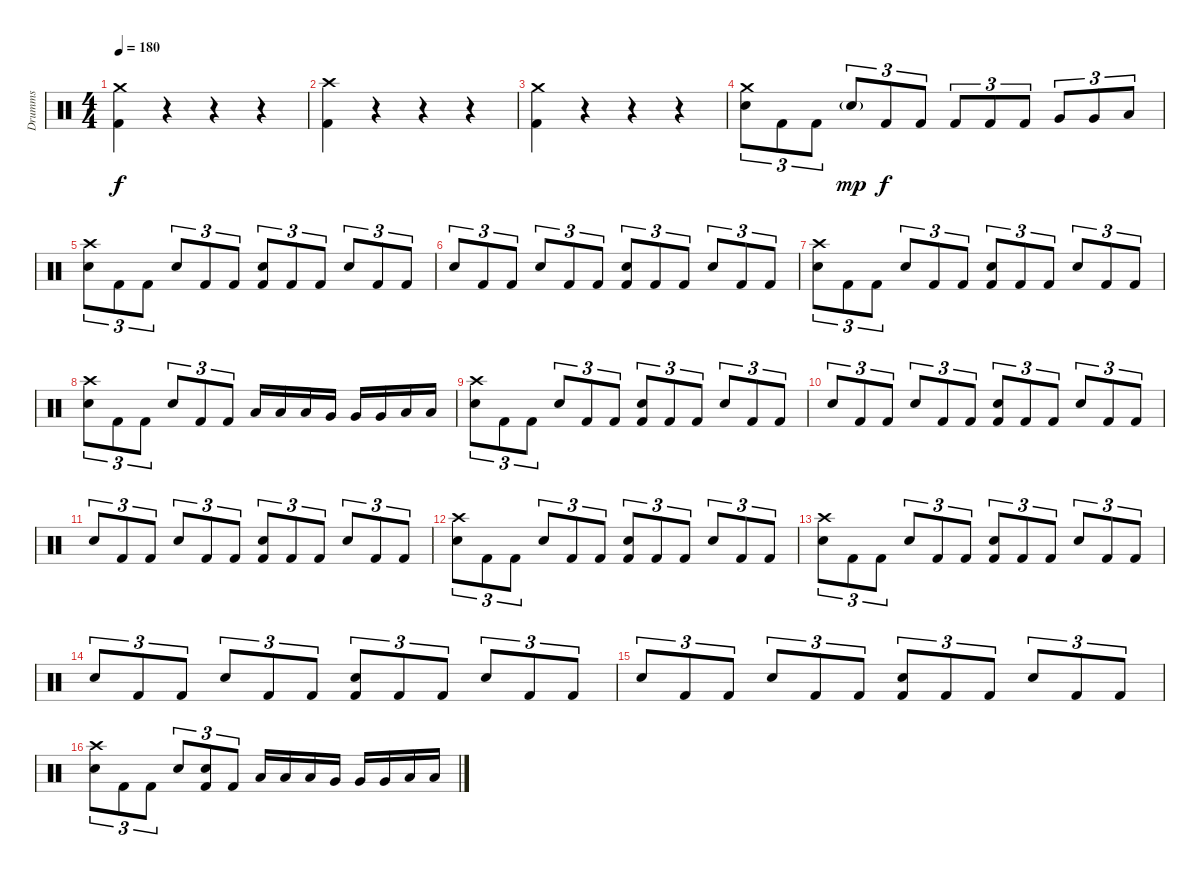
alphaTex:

\track ("Drumms" "Drumms") {instrument percussion}
\staff {score}
\articulation defaults
\ts (4 4)
\tempo 180
\clef neutral
\ks c
("Kick (hit) 2" "Crash medium (hit)").4{dy f} r.4{volume 0} r.4{volume 13} r.4 |
("Kick (hit) 2" "Crash high (hit)").4 r.4{volume 0} r.4{volume 13} r.4 |
("Kick (hit) 2" "Crash medium (hit)").4 r.4 r.4 r.4 |
("Snare (hit) 2" "Crash medium (hit)").8{tu (3 2)} "Kick (hit) 2".8{tu (3 2)} "Kick (hit) 2".8{tu (3 2)} "Snare (hit) 2"{g}.8{tu (3 2) dy mp} "Kick (hit) 2".8{tu (3 2) dy f} "Kick (hit) 2".8{tu (3 2)} "Kick (hit) 2".8{tu (3 2)} "Kick (hit) 2".8{tu (3 2)} "Kick (hit) 2".8{tu (3 2)} "Very Low Tom (hit)".8{tu (3 2)} "Very Low Tom (hit)".8{tu (3 2)} "Low Floor Tom (hit)".8{tu (3 2)} |
("Snare (hit) 2" "Crash high (hit)").8{tu (3 2)} "Kick (hit) 2".8{tu (3 2)} "Kick (hit) 2".8{tu (3 2)} "Snare (hit) 2".8{tu (3 2)} "Kick (hit) 2".8{tu (3 2)} "Kick (hit) 2".8{tu (3 2)} ("Kick (hit) 2" "Snare (hit) 2").8{tu (3 2)} "Kick (hit) 2".8{tu (3 2)} "Kick (hit) 2".8{tu (3 2)} "Snare (hit) 2".8{tu (3 2)} "Kick (hit) 2".8{tu (3 2)} "Kick (hit) 2".8{tu (3 2)} |
"Snare (hit) 2".8{tu (3 2)} "Kick (hit) 2".8{tu (3 2)} "Kick (hit) 2".8{tu (3 2)} "Snare (hit) 2".8{tu (3 2)} "Kick (hit) 2".8{tu (3 2)} "Kick (hit) 2".8{tu (3 2)} ("Kick (hit) 2" "Snare (hit) 2").8{tu (3 2)} "Kick (hit) 2".8{tu (3 2)} "Kick (hit) 2".8{tu (3 2)} "Snare (hit) 2".8{tu (3 2)} "Kick (hit) 2".8{tu (3 2)} "Kick (hit) 2".8{tu (3 2)} |
("Snare (hit) 2" "Crash high (hit)").8{tu (3 2)} "Kick (hit) 2".8{tu (3 2)} "Kick (hit) 2".8{tu (3 2)} "Snare (hit) 2".8{tu (3 2)} "Kick (hit) 2".8{tu (3 2)} "Kick (hit) 2".8{tu (3 2)} ("Kick (hit) 2" "Snare (hit) 2").8{tu (3 2)} "Kick (hit) 2".8{tu (3 2)} "Kick (hit) 2".8{tu (3 2)} "Snare (hit) 2".8{tu (3 2)} "Kick (hit) 2".8{tu (3 2)} "Kick (hit) 2".8{tu (3 2)} |
("Snare (hit) 2" "Crash high (hit)").8{tu (3 2)} "Kick (hit) 2".8{tu (3 2)} "Kick (hit) 2".8{tu (3 2)} "Snare (hit) 2".8{tu (3 2)} "Kick (hit) 2".8{tu (3 2)} "Kick (hit) 2".8{tu (3 2)} "Low Tom (hit)".16 "Low Tom (hit)".16 "Low Tom (hit)".16 "Very Low Tom (hit)".16 "Very Low Tom (hit)".16 "Very Low Tom (hit)".16 "Low Floor Tom (hit)".16 "Low Floor Tom (hit)".16 |
("Snare (hit) 2" "Crash high (hit)").8{tu (3 2)} "Kick (hit) 2".8{tu (3 2)} "Kick (hit) 2".8{tu (3 2)} "Snare (hit) 2".8{tu (3 2)} "Kick (hit) 2".8{tu (3 2)} "Kick (hit) 2".8{tu (3 2)} ("Kick (hit) 2" "Snare (hit) 2").8{tu (3 2)} "Kick (hit) 2".8{tu (3 2)} "Kick (hit) 2".8{tu (3 2)} "Snare (hit) 2".8{tu (3 2)} "Kick (hit) 2".8{tu (3 2)} "Kick (hit) 2".8{tu (3 2)} |
"Snare (hit) 2".8{tu (3 2)} "Kick (hit) 2".8{tu (3 2)} "Kick (hit) 2".8{tu (3 2)} "Snare (hit) 2".8{tu (3 2)} "Kick (hit) 2".8{tu (3 2)} "Kick (hit) 2".8{tu (3 2)} ("Kick (hit) 2" "Snare (hit) 2").8{tu (3 2)} "Kick (hit) 2".8{tu (3 2)} "Kick (hit) 2".8{tu (3 2)} "Snare (hit) 2".8{tu (3 2)} "Kick (hit) 2".8{tu (3 2)} "Kick (hit) 2".8{tu (3 2)} |
"Snare (hit) 2".8{tu (3 2)} "Kick (hit) 2".8{tu (3 2)} "Kick (hit) 2".8{tu (3 2)} "Snare (hit) 2".8{tu (3 2)} "Kick (hit) 2".8{tu (3 2)} "Kick (hit) 2".8{tu (3 2)} ("Kick (hit) 2" "Snare (hit) 2").8{tu (3 2)} "Kick (hit) 2".8{tu (3 2)} "Kick (hit) 2".8{tu (3 2)} "Snare (hit) 2".8{tu (3 2)} "Kick (hit) 2".8{tu (3 2)} "Kick (hit) 2".8{tu (3 2)} |
("Snare (hit) 2" "Crash high (hit)").8{tu (3 2)} "Kick (hit) 2".8{tu (3 2)} "Kick (hit) 2".8{tu (3 2)} "Snare (hit) 2".8{tu (3 2)} "Kick (hit) 2".8{tu (3 2)} "Kick (hit) 2".8{tu (3 2)} ("Kick (hit) 2" "Snare (hit) 2").8{tu (3 2)} "Kick (hit) 2".8{tu (3 2)} "Kick (hit) 2".8{tu (3 2)} "Snare (hit) 2".8{tu (3 2)} "Kick (hit) 2".8{tu (3 2)} "Kick (hit) 2".8{tu (3 2)} |
("Snare (hit) 2" "Crash high (hit)").8{tu (3 2)} "Kick (hit) 2".8{tu (3 2)} "Kick (hit) 2".8{tu (3 2)} "Snare (hit) 2".8{tu (3 2)} "Kick (hit) 2".8{tu (3 2)} "Kick (hit) 2".8{tu (3 2)} ("Kick (hit) 2" "Snare (hit) 2").8{tu (3 2)} "Kick (hit) 2".8{tu (3 2)} "Kick (hit) 2".8{tu (3 2)} "Snare (hit) 2".8{tu (3 2)} "Kick (hit) 2".8{tu (3 2)} "Kick (hit) 2".8{tu (3 2)} |
"Snare (hit) 2".8{tu (3 2)} "Kick (hit) 2".8{tu (3 2)} "Kick (hit) 2".8{tu (3 2)} "Snare (hit) 2".8{tu (3 2)} "Kick (hit) 2".8{tu (3 2)} "Kick (hit) 2".8{tu (3 2)} ("Kick (hit) 2" "Snare (hit) 2").8{tu (3 2)} "Kick (hit) 2".8{tu (3 2)} "Kick (hit) 2".8{tu (3 2)} "Snare (hit) 2".8{tu (3 2)} "Kick (hit) 2".8{tu (3 2)} "Kick (hit) 2".8{tu (3 2)} |
"Snare (hit) 2".8{tu (3 2)} "Kick (hit) 2".8{tu (3 2)} "Kick (hit) 2".8{tu (3 2)} "Snare (hit) 2".8{tu (3 2)} "Kick (hit) 2".8{tu (3 2)} "Kick (hit) 2".8{tu (3 2)} ("Kick (hit) 2" "Snare (hit) 2").8{tu (3 2)} "Kick (hit) 2".8{tu (3 2)} "Kick (hit) 2".8{tu (3 2)} "Snare (hit) 2".8{tu (3 2)} "Kick (hit) 2".8{tu (3 2)} "Kick (hit) 2".8{tu (3 2)} |
("Snare (hit) 2" "Crash high (hit)").8{tu (3 2)} "Kick (hit) 2".8{tu (3 2)} "Kick (hit) 2".8{tu (3 2)} "Snare (hit) 2".8{tu (3 2)} ("Kick (hit) 2" "Snare (hit) 2").8{tu (3 2)} "Kick (hit) 2".8{tu (3 2)} "Low Tom (hit)".16 "Low Tom (hit)".16 "Low Tom (hit)".16 "Very Low Tom (hit)".16 "Very Low Tom (hit)".16 "Very Low Tom (hit)".16 "Low Floor Tom (hit)".16 "Low Floor Tom (hit)".16
